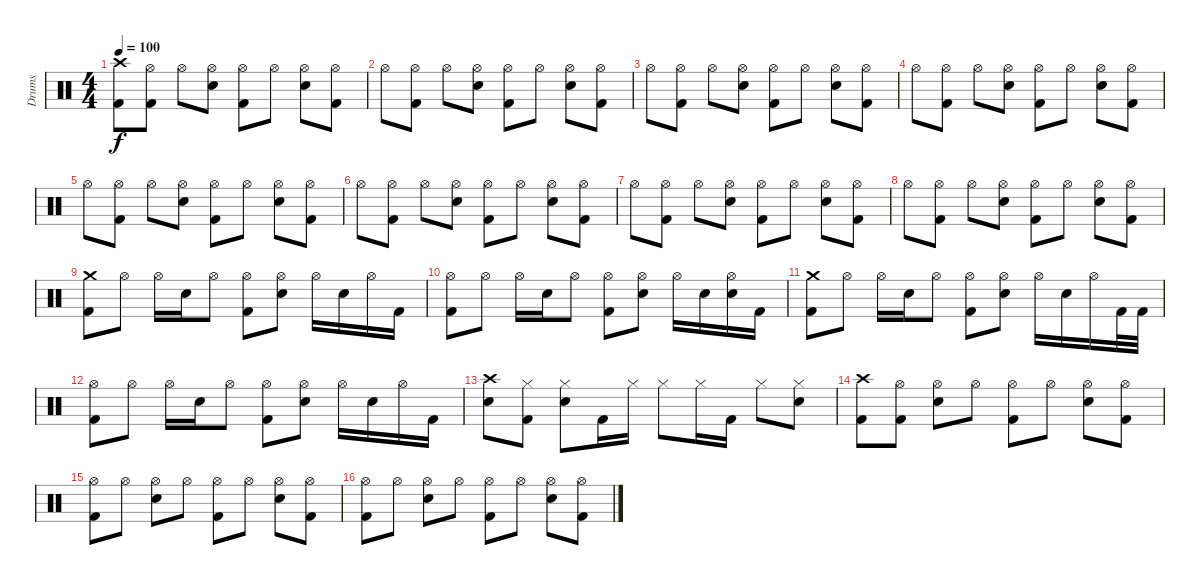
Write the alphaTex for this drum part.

\track ("Drums" "Drums") {instrument percussion}
\staff {score}
\articulation defaults
\ts (4 4)
\tempo 100
\clef neutral
\ks c
("Crash high (hit)" "Kick (hit) 2").8{dy f} ("Hi-Hat (open)" "Kick (hit) 2").8 "Hi-Hat (open)".8 ("Hi-Hat (open)" "Snare (hit) 2").8 ("Hi-Hat (open)" "Kick (hit) 2").8 "Hi-Hat (open)".8 ("Hi-Hat (open)" "Snare (hit) 2").8 ("Hi-Hat (open)" "Kick (hit) 2").8 |
"Hi-Hat (open)".8 ("Hi-Hat (open)" "Kick (hit) 2").8 "Hi-Hat (open)".8 ("Hi-Hat (open)" "Snare (hit) 2").8 ("Hi-Hat (open)" "Kick (hit) 2").8 "Hi-Hat (open)".8 ("Hi-Hat (open)" "Snare (hit) 2").8 ("Hi-Hat (open)" "Kick (hit) 2").8 |
"Hi-Hat (open)".8 ("Hi-Hat (open)" "Kick (hit) 2").8 "Hi-Hat (open)".8 ("Hi-Hat (open)" "Snare (hit) 2").8 ("Hi-Hat (open)" "Kick (hit) 2").8 "Hi-Hat (open)".8 ("Hi-Hat (open)" "Snare (hit) 2").8 ("Hi-Hat (open)" "Kick (hit) 2").8 |
"Hi-Hat (open)".8 ("Hi-Hat (open)" "Kick (hit) 2").8 "Hi-Hat (open)".8 ("Hi-Hat (open)" "Snare (hit) 2").8 ("Hi-Hat (open)" "Kick (hit) 2").8 "Hi-Hat (open)".8 ("Hi-Hat (open)" "Snare (hit) 2").8 ("Hi-Hat (open)" "Kick (hit) 2").8 |
"Hi-Hat (open)".8 ("Hi-Hat (open)" "Kick (hit) 2").8 "Hi-Hat (open)".8 ("Hi-Hat (open)" "Snare (hit) 2").8 ("Hi-Hat (open)" "Kick (hit) 2").8 "Hi-Hat (open)".8 ("Hi-Hat (open)" "Snare (hit) 2").8 ("Hi-Hat (open)" "Kick (hit) 2").8 |
"Hi-Hat (open)".8 ("Hi-Hat (open)" "Kick (hit) 2").8 "Hi-Hat (open)".8 ("Hi-Hat (open)" "Snare (hit) 2").8 ("Hi-Hat (open)" "Kick (hit) 2").8 "Hi-Hat (open)".8 ("Hi-Hat (open)" "Snare (hit) 2").8 ("Hi-Hat (open)" "Kick (hit) 2").8 |
"Hi-Hat (open)".8 ("Hi-Hat (open)" "Kick (hit) 2").8 "Hi-Hat (open)".8 ("Hi-Hat (open)" "Snare (hit) 2").8 ("Hi-Hat (open)" "Kick (hit) 2").8 "Hi-Hat (open)".8 ("Hi-Hat (open)" "Snare (hit) 2").8 ("Hi-Hat (open)" "Kick (hit) 2").8 |
"Hi-Hat (open)".8 ("Hi-Hat (open)" "Kick (hit) 2").8 "Hi-Hat (open)".8 ("Hi-Hat (open)" "Snare (hit) 2").8 ("Hi-Hat (open)" "Kick (hit) 2").8 "Hi-Hat (open)".8 ("Hi-Hat (open)" "Snare (hit) 2").8 ("Hi-Hat (open)" "Kick (hit) 2").8 |
("Crash medium (hit)" "Kick (hit) 2").8 "Hi-Hat (open)".8 "Hi-Hat (open)".16 "Snare (hit) 2".16 "Hi-Hat (open)".8 ("Hi-Hat (open)" "Kick (hit) 2").8 ("Hi-Hat (open)" "Snare (hit) 2").8 "Hi-Hat (open)".16 "Snare (hit) 2".16 "Hi-Hat (open)".16 "Kick (hit) 2".16 |
("Hi-Hat (open)" "Kick (hit) 2").8 "Hi-Hat (open)".8 "Hi-Hat (open)".16 "Snare (hit) 2".16 "Hi-Hat (open)".8 ("Hi-Hat (open)" "Kick (hit) 2").8 ("Hi-Hat (open)" "Snare (hit) 2").8 "Hi-Hat (open)".16 "Snare (hit) 2".16 ("Hi-Hat (open)" "Snare (hit) 2").16 "Kick (hit) 2".16 |
("Crash medium (hit)" "Kick (hit) 2").8 "Hi-Hat (open)".8 "Hi-Hat (open)".16 "Snare (hit) 2".16 "Hi-Hat (open)".8 ("Hi-Hat (open)" "Kick (hit) 2").8 ("Hi-Hat (open)" "Snare (hit) 2").8 "Hi-Hat (open)".16 "Snare (hit) 2".16 "Hi-Hat (open)".16 "Kick (hit) 2".32 "Kick (hit) 2".32 |
("Hi-Hat (open)" "Kick (hit) 2").8 "Hi-Hat (open)".8 "Hi-Hat (open)".16 "Snare (hit) 2".16 "Hi-Hat (open)".8 ("Hi-Hat (open)" "Kick (hit) 2").8 ("Hi-Hat (open)" "Snare (hit) 2").8 "Hi-Hat (open)".16 "Snare (hit) 2".16 "Hi-Hat (open)".16 "Kick (hit) 2".16 |
("Crash high (hit)" "Snare (hit) 2").8 ("Hi-Hat (closed)" "Kick (hit) 2").8 ("Hi-Hat (closed)" "Snare (hit) 2").8 "Kick (hit) 2".16 "Hi-Hat (closed)".16 "Hi-Hat (closed)".8 "Hi-Hat (closed)".16 "Kick (hit) 2".16 "Hi-Hat (closed)".8 ("Hi-Hat (closed)" "Snare (hit) 2").8 |
("Crash high (hit)" "Kick (hit) 2").8 ("Hi-Hat (open)" "Kick (hit) 2").8 ("Hi-Hat (open)" "Snare (hit) 2").8 "Hi-Hat (open)".8 ("Hi-Hat (open)" "Kick (hit) 2").8 "Hi-Hat (open)".8 ("Hi-Hat (open)" "Snare (hit) 2").8 ("Hi-Hat (open)" "Kick (hit) 2").8 |
("Hi-Hat (open)" "Kick (hit) 2").8 "Hi-Hat (open)".8 ("Hi-Hat (open)" "Snare (hit) 2").8 "Hi-Hat (open)".8 ("Hi-Hat (open)" "Kick (hit) 2").8 "Hi-Hat (open)".8 ("Hi-Hat (open)" "Snare (hit) 2").8 ("Hi-Hat (open)" "Kick (hit) 2").8 |
("Hi-Hat (open)" "Kick (hit) 2").8 "Hi-Hat (open)".8 ("Hi-Hat (open)" "Snare (hit) 2").8 "Hi-Hat (open)".8 ("Hi-Hat (open)" "Kick (hit) 2").8 "Hi-Hat (open)".8 ("Hi-Hat (open)" "Snare (hit) 2").8 ("Hi-Hat (open)" "Kick (hit) 2").8
